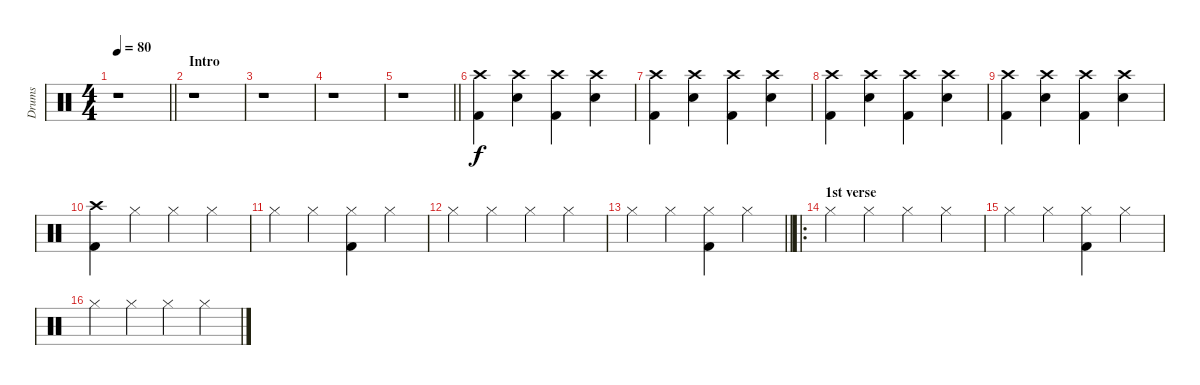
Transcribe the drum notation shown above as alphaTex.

\track ("Drums" "Drums") {instrument percussion}
\staff {score}
\articulation defaults
\ts (4 4)
\tempo 80
\clef neutral
\barLineRight lightlight
\ks c
r.1{dy f} |
\section ("" "Intro")
r.1 |
r.1 |
r.1 |
\barLineRight lightlight
r.1 |
("Crash high (hit)" "Kick (hit) 2").4 ("Crash high (hit)" "Electric Snare (hit)").4 ("Crash high (hit)" "Kick (hit) 2").4 ("Crash high (hit)" "Electric Snare (hit)").4 |
("Crash high (hit)" "Kick (hit) 2").4 ("Crash high (hit)" "Electric Snare (hit)").4 ("Crash high (hit)" "Kick (hit) 2").4 ("Crash high (hit)" "Electric Snare (hit)").4 |
("Crash high (hit)" "Kick (hit) 2").4 ("Crash high (hit)" "Electric Snare (hit)").4 ("Crash high (hit)" "Kick (hit) 2").4 ("Crash high (hit)" "Electric Snare (hit)").4 |
("Crash high (hit)" "Kick (hit) 2").4 ("Crash high (hit)" "Electric Snare (hit)").4 ("Crash high (hit)" "Kick (hit) 2").4 ("Crash high (hit)" "Electric Snare (hit)").4 |
("Crash high (hit)" "Kick (hit) 2").4 "Hi-Hat (closed)".4 "Hi-Hat (closed)".4 "Hi-Hat (closed)".4 |
"Hi-Hat (closed)".4 "Hi-Hat (closed)".4 ("Hi-Hat (closed)" "Kick (hit) 2").4 "Hi-Hat (closed)".4 |
"Hi-Hat (closed)".4 "Hi-Hat (closed)".4 "Hi-Hat (closed)".4 "Hi-Hat (closed)".4 |
\barLineRight lightlight "Hi-Hat (closed)".4 "Hi-Hat (closed)".4
("Hi-Hat (closed)" "Kick (hit) 2").4 "Hi-Hat (closed)".4 |
\ro
\section ("" "1st verse")
"Hi-Hat (closed)".4 "Hi-Hat (closed)".4 "Hi-Hat (closed)".4 "Hi-Hat (closed)".4 |
"Hi-Hat (closed)".4 "Hi-Hat (closed)".4 ("Hi-Hat (closed)" "Kick (hit) 2").4 "Hi-Hat (closed)".4 |
"Hi-Hat (closed)".4 "Hi-Hat (closed)".4 "Hi-Hat (closed)".4 "Hi-Hat (closed)".4
